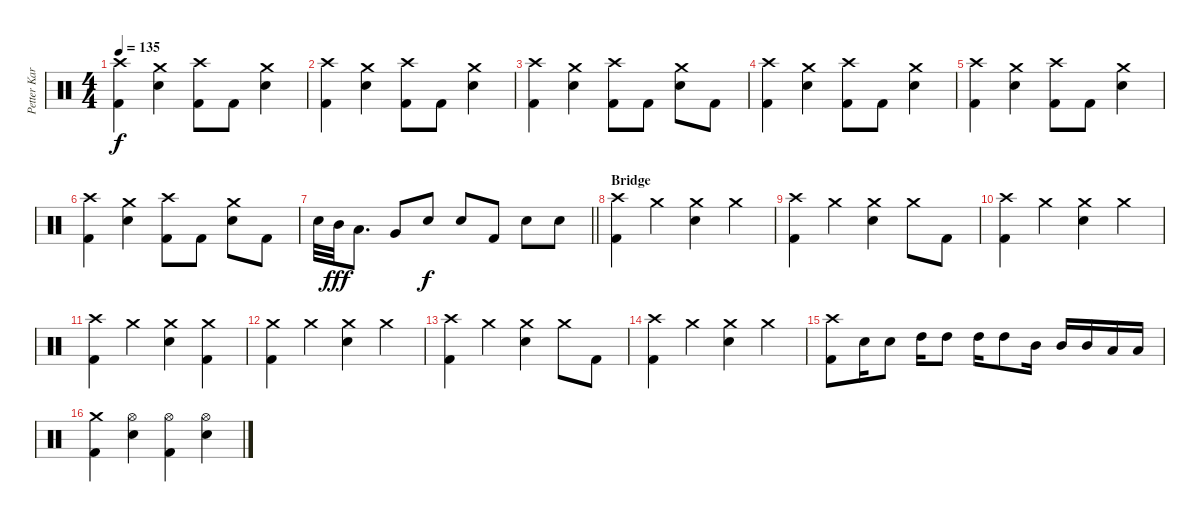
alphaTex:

\track ("Petter Karlsson" "Petter Kar") {instrument percussion}
\staff {score}
\articulation defaults
\ts (4 4)
\tempo 135
\clef neutral
\ks c
("Crash high (hit)" "Kick (hit) 2").4{dy f} ("Crash medium (hit)" "Electric Snare (hit)").4 ("Crash high (hit)" "Kick (hit) 2").8 "Kick (hit) 2".8 ("Crash medium (hit)" "Electric Snare (hit)").4 |
("Crash high (hit)" "Kick (hit) 2").4 ("Crash medium (hit)" "Electric Snare (hit)").4 ("Crash high (hit)" "Kick (hit) 2").8 "Kick (hit) 2".8 ("Crash medium (hit)" "Electric Snare (hit)").4 |
("Crash high (hit)" "Kick (hit) 2").4 ("Crash medium (hit)" "Electric Snare (hit)").4 ("Crash high (hit)" "Kick (hit) 2").8 "Kick (hit) 2".8 ("Crash medium (hit)" "Electric Snare (hit)").8 "Kick (hit) 2".8 |
("Crash high (hit)" "Kick (hit) 2").4 ("Crash medium (hit)" "Electric Snare (hit)").4 ("Crash high (hit)" "Kick (hit) 2").8 "Kick (hit) 2".8 ("Crash medium (hit)" "Electric Snare (hit)").4 |
("Crash high (hit)" "Kick (hit) 2").4 ("Crash medium (hit)" "Electric Snare (hit)").4 ("Crash high (hit)" "Kick (hit) 2").8 "Kick (hit) 2".8 ("Crash medium (hit)" "Electric Snare (hit)").4 |
("Crash high (hit)" "Kick (hit) 2").4 ("Crash medium (hit)" "Electric Snare (hit)").4 ("Crash high (hit)" "Kick (hit) 2").8 "Kick (hit) 2".8 ("Crash medium (hit)" "Electric Snare (hit)").8 "Kick (hit) 2".8 |
\barLineRight lightlight "Electric Snare (hit)".32 "Mid Tom (hit)".32{dy fff} "Low Tom (hit)".8{d} "Very Low Tom (hit)".8 "Electric Snare (hit)".8{dy f} "Electric Snare (hit)".8 "Kick (hit) 2".8 "Electric Snare (hit)".8 "Electric Snare (hit)".8
|
\section ("" "Bridge")
("Crash high (hit)" "Kick (hit) 2").4 "Crash medium (hit)".4 ("Crash medium (hit)" "Electric Snare (hit)").4 "Crash medium (hit)".4 |
("Crash high (hit)" "Kick (hit) 2").4 "Crash medium (hit)".4 ("Crash medium (hit)" "Electric Snare (hit)").4 "Crash medium (hit)".8 "Kick (hit) 2".8 |
("Crash high (hit)" "Kick (hit) 2").4 "Crash medium (hit)".4 ("Crash medium (hit)" "Electric Snare (hit)").4 "Crash medium (hit)".4 |
("Crash high (hit)" "Kick (hit) 2").4 "Crash medium (hit)".4 ("Crash medium (hit)" "Electric Snare (hit)").4 ("Crash medium (hit)" "Kick (hit) 2").4 |
("Crash medium (hit)" "Kick (hit) 2").4 "Crash medium (hit)".4 ("Crash medium (hit)" "Electric Snare (hit)").4 "Crash medium (hit)".4 |
("Crash high (hit)" "Kick (hit) 2").4 "Crash medium (hit)".4 ("Crash medium (hit)" "Electric Snare (hit)").4 "Crash medium (hit)".8 "Kick (hit) 2".8 |
("Crash high (hit)" "Kick (hit) 2").4 "Crash medium (hit)".4 ("Crash medium (hit)" "Electric Snare (hit)").4 "Crash medium (hit)".4 |
("Crash high (hit)" "Kick (hit) 2").8 "Electric Snare (hit)".16 "Electric Snare (hit)".8 "High Tom (hit)".16 "High Tom (hit)".8 "High Tom (hit)".16 "High Tom (hit)".8 "Mid Tom (hit)".16 "Mid Tom (hit)".16 "Mid Tom (hit)".16 "Low Tom (hit)".16 "Low Tom (hit)".16 |
("Crash medium (hit)" "Kick (hit) 2").4 ("Hi-Hat (open)" "Electric Snare (hit)").4 ("Hi-Hat (open)" "Kick (hit) 2").4 ("Hi-Hat (open)" "Electric Snare (hit)").4
